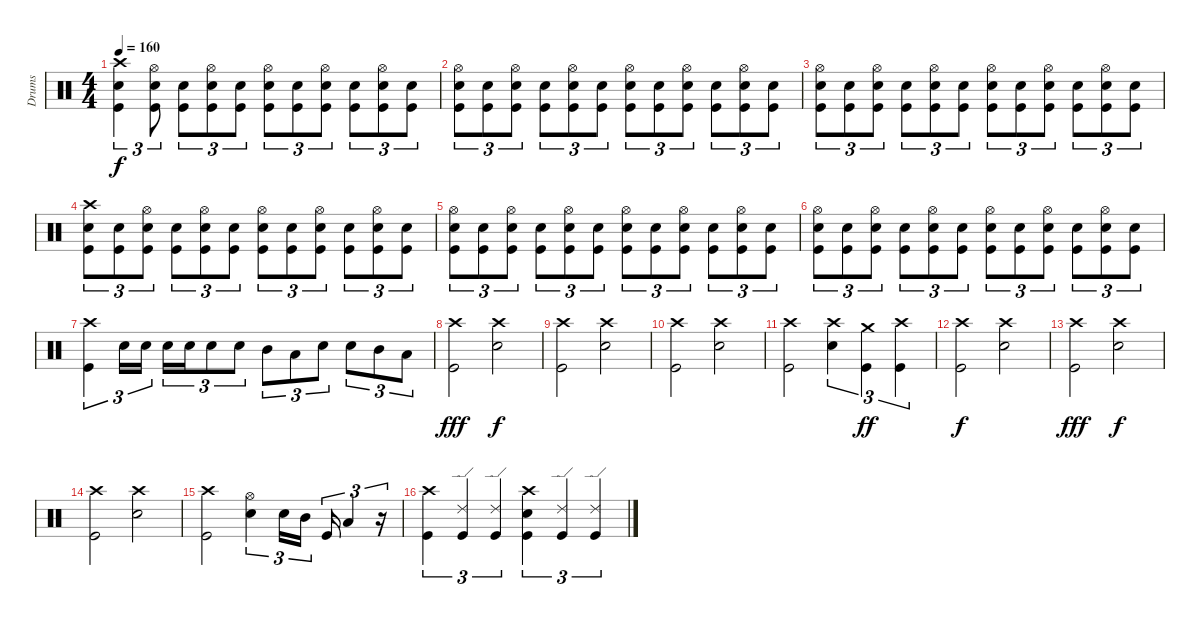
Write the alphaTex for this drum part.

\track ("Drums" "Drums") {instrument percussion}
\staff {score}
\articulation defaults
\ts (4 4)
\tempo 160
\clef neutral
\ks c
("Crash high (hit)" "Electric Snare (hit)" "Kick (hit)").4{tu (3 2) dy f} ("Hi-Hat (open)" "Electric Snare (hit)" "Kick (hit)").8{tu (3 2)} ("Electric Snare (hit)" "Kick (hit)").8{tu (3 2)} ("Hi-Hat (open)" "Electric Snare (hit)" "Kick (hit)").8{tu (3 2)} ("Electric Snare (hit)" "Kick (hit)").8{tu (3 2)} ("Hi-Hat (open)" "Electric Snare (hit)" "Kick (hit)").8{tu (3 2)} ("Electric Snare (hit)" "Kick (hit)").8{tu (3 2)} ("Hi-Hat (open)" "Electric Snare (hit)" "Kick (hit)").8{tu (3 2)} ("Electric Snare (hit)" "Kick (hit)").8{tu (3 2)} ("Hi-Hat (open)" "Electric Snare (hit)" "Kick (hit)").8{tu (3 2)} ("Electric Snare (hit)" "Kick (hit)").8{tu (3 2)} |
("Hi-Hat (open)" "Electric Snare (hit)" "Kick (hit)").8{tu (3 2)} ("Electric Snare (hit)" "Kick (hit)").8{tu (3 2)} ("Hi-Hat (open)" "Electric Snare (hit)" "Kick (hit)").8{tu (3 2)} ("Electric Snare (hit)" "Kick (hit)").8{tu (3 2)} ("Hi-Hat (open)" "Electric Snare (hit)" "Kick (hit)").8{tu (3 2)} ("Electric Snare (hit)" "Kick (hit)").8{tu (3 2)} ("Hi-Hat (open)" "Electric Snare (hit)" "Kick (hit)").8{tu (3 2)} ("Electric Snare (hit)" "Kick (hit)").8{tu (3 2)} ("Hi-Hat (open)" "Electric Snare (hit)" "Kick (hit)").8{tu (3 2)} ("Electric Snare (hit)" "Kick (hit)").8{tu (3 2)} ("Hi-Hat (open)" "Electric Snare (hit)" "Kick (hit)").8{tu (3 2)} ("Electric Snare (hit)" "Kick (hit)").8{tu (3 2)} |
("Hi-Hat (open)" "Electric Snare (hit)" "Kick (hit)").8{tu (3 2)} ("Electric Snare (hit)" "Kick (hit)").8{tu (3 2)} ("Hi-Hat (open)" "Electric Snare (hit)" "Kick (hit)").8{tu (3 2)} ("Electric Snare (hit)" "Kick (hit)").8{tu (3 2)} ("Hi-Hat (open)" "Electric Snare (hit)" "Kick (hit)").8{tu (3 2)} ("Electric Snare (hit)" "Kick (hit)").8{tu (3 2)} ("Hi-Hat (open)" "Electric Snare (hit)" "Kick (hit)").8{tu (3 2)} ("Electric Snare (hit)" "Kick (hit)").8{tu (3 2)} ("Hi-Hat (open)" "Electric Snare (hit)" "Kick (hit)").8{tu (3 2)} ("Electric Snare (hit)" "Kick (hit)").8{tu (3 2)} ("Hi-Hat (open)" "Electric Snare (hit)" "Kick (hit)").8{tu (3 2)} ("Electric Snare (hit)" "Kick (hit)").8{tu (3 2)} |
("Crash high (hit)" "Electric Snare (hit)" "Kick (hit)").8{tu (3 2)} ("Electric Snare (hit)" "Kick (hit)").8{tu (3 2)} ("Hi-Hat (open)" "Electric Snare (hit)" "Kick (hit)").8{tu (3 2)} ("Electric Snare (hit)" "Kick (hit)").8{tu (3 2)} ("Hi-Hat (open)" "Electric Snare (hit)" "Kick (hit)").8{tu (3 2)} ("Electric Snare (hit)" "Kick (hit)").8{tu (3 2)} ("Hi-Hat (open)" "Electric Snare (hit)" "Kick (hit)").8{tu (3 2)} ("Electric Snare (hit)" "Kick (hit)").8{tu (3 2)} ("Hi-Hat (open)" "Electric Snare (hit)" "Kick (hit)").8{tu (3 2)} ("Electric Snare (hit)" "Kick (hit)").8{tu (3 2)} ("Hi-Hat (open)" "Electric Snare (hit)" "Kick (hit)").8{tu (3 2)} ("Electric Snare (hit)" "Kick (hit)").8{tu (3 2)} |
("Hi-Hat (open)" "Electric Snare (hit)" "Kick (hit)").8{tu (3 2)} ("Electric Snare (hit)" "Kick (hit)").8{tu (3 2)} ("Hi-Hat (open)" "Electric Snare (hit)" "Kick (hit)").8{tu (3 2)} ("Electric Snare (hit)" "Kick (hit)").8{tu (3 2)} ("Hi-Hat (open)" "Electric Snare (hit)" "Kick (hit)").8{tu (3 2)} ("Electric Snare (hit)" "Kick (hit)").8{tu (3 2)} ("Hi-Hat (open)" "Electric Snare (hit)" "Kick (hit)").8{tu (3 2)} ("Electric Snare (hit)" "Kick (hit)").8{tu (3 2)} ("Hi-Hat (open)" "Electric Snare (hit)" "Kick (hit)").8{tu (3 2)} ("Electric Snare (hit)" "Kick (hit)").8{tu (3 2)} ("Hi-Hat (open)" "Electric Snare (hit)" "Kick (hit)").8{tu (3 2)} ("Electric Snare (hit)" "Kick (hit)").8{tu (3 2)} |
("Hi-Hat (open)" "Electric Snare (hit)" "Kick (hit)").8{tu (3 2)} ("Electric Snare (hit)" "Kick (hit)").8{tu (3 2)} ("Hi-Hat (open)" "Electric Snare (hit)" "Kick (hit)").8{tu (3 2)} ("Electric Snare (hit)" "Kick (hit)").8{tu (3 2)} ("Hi-Hat (open)" "Electric Snare (hit)" "Kick (hit)").8{tu (3 2)} ("Electric Snare (hit)" "Kick (hit)").8{tu (3 2)} ("Hi-Hat (open)" "Electric Snare (hit)" "Kick (hit)").8{tu (3 2)} ("Electric Snare (hit)" "Kick (hit)").8{tu (3 2)} ("Hi-Hat (open)" "Electric Snare (hit)" "Kick (hit)").8{tu (3 2)} ("Electric Snare (hit)" "Kick (hit)").8{tu (3 2)} ("Hi-Hat (open)" "Electric Snare (hit)" "Kick (hit)").8{tu (3 2)} ("Electric Snare (hit)" "Kick (hit)").8{tu (3 2)} |
("Crash high (hit)" "Kick (hit)").4{tu (3 2)} "Electric Snare (hit)".16{tu (3 2)} "Electric Snare (hit)".16{tu (3 2)} "Electric Snare (hit)".16{tu (3 2)} "Electric Snare (hit)".16{tu (3 2)} "Electric Snare (hit)".8{tu (3 2)} "Electric Snare (hit)".8{tu (3 2)} "Mid Tom (hit)".8{tu (3 2)} "Low Tom (hit)".8{tu (3 2)} "Electric Snare (hit)".8{tu (3 2)} "Electric Snare (hit)".8{tu (3 2)} "Mid Tom (hit)".8{tu (3 2)} "Low Tom (hit)".8{tu (3 2)} |
("Crash high (hit)" "Kick (hit)").2{dy fff} ("Crash high (hit)" "Electric Snare (hit)").2{dy f} |
("Crash high (hit)" "Kick (hit)").2 ("Crash high (hit)" "Electric Snare (hit)").2 |
("Crash high (hit)" "Kick (hit)").2 ("Crash high (hit)" "Electric Snare (hit)").2 |
("Crash high (hit)" "Kick (hit)").2 ("Crash high (hit)" "Electric Snare (hit)").4{tu (3 2)} ("Crash medium (hit)" "Kick (hit)").4{tu (3 2) dy ff} ("Crash high (hit)" "Kick (hit)").4{tu (3 2)} |
("Crash high (hit)" "Kick (hit)").2{dy f} ("Crash high (hit)" "Electric Snare (hit)").2 |
("Crash high (hit)" "Kick (hit)").2{dy fff} ("Crash high (hit)" "Electric Snare (hit)").2{dy f} |
("Crash high (hit)" "Kick (hit)").2 ("Crash high (hit)" "Electric Snare (hit)").2 |
("Crash high (hit)" "Kick (hit)").2 ("Hi-Hat (open)" "Electric Snare (hit)").4{tu (3 2)} "Electric Snare (hit)".16{tu (3 2)} "Mid Tom (hit)".16{tu (3 2)} "Kick (hit)".16{tu (3 2)} "Low Tom (hit)".4{tu (3 2)} r.16{tu (3 2)} |
("Crash high (hit)" "Kick (hit)").4{tu (3 2)} ("Ride (edge) 2" "Kick (hit)").4{tu (3 2)} ("Ride (edge) 2" "Kick (hit)").4{tu (3 2)} ("Electric Snare (hit)" "Crash high (hit)" "Kick (hit)").4{tu (3 2)} ("Ride (edge) 2" "Kick (hit)").4{tu (3 2)} ("Ride (edge) 2" "Kick (hit)").4{tu (3 2)}
